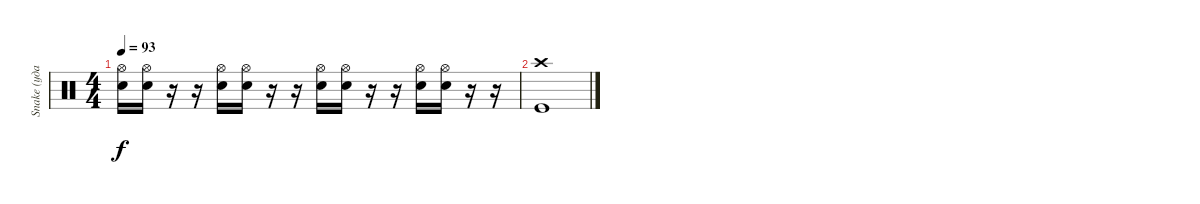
\track ("Snake (ударные)" "Snake (уда") {instrument percussion}
\staff {score}
\articulation defaults
\ts (4 4)
\tempo 93
\clef neutral
\ks c
("Hi-Hat (open)" "Snare (hit) 2").16{dy f} ("Hi-Hat (open)" "Snare (hit) 2").16 r.16 r.16 ("Hi-Hat (open)" "Snare (hit) 2").16 ("Hi-Hat (open)" "Snare (hit) 2").16 r.16 r.16 ("Hi-Hat (open)" "Snare (hit) 2").16 ("Hi-Hat (open)" "Snare (hit) 2").16 r.16 r.16 ("Hi-Hat (open)" "Snare (hit) 2").16 ("Hi-Hat (open)" "Snare (hit) 2").16 r.16 r.16 |
("Kick (hit)" "Crash high (hit)").1
